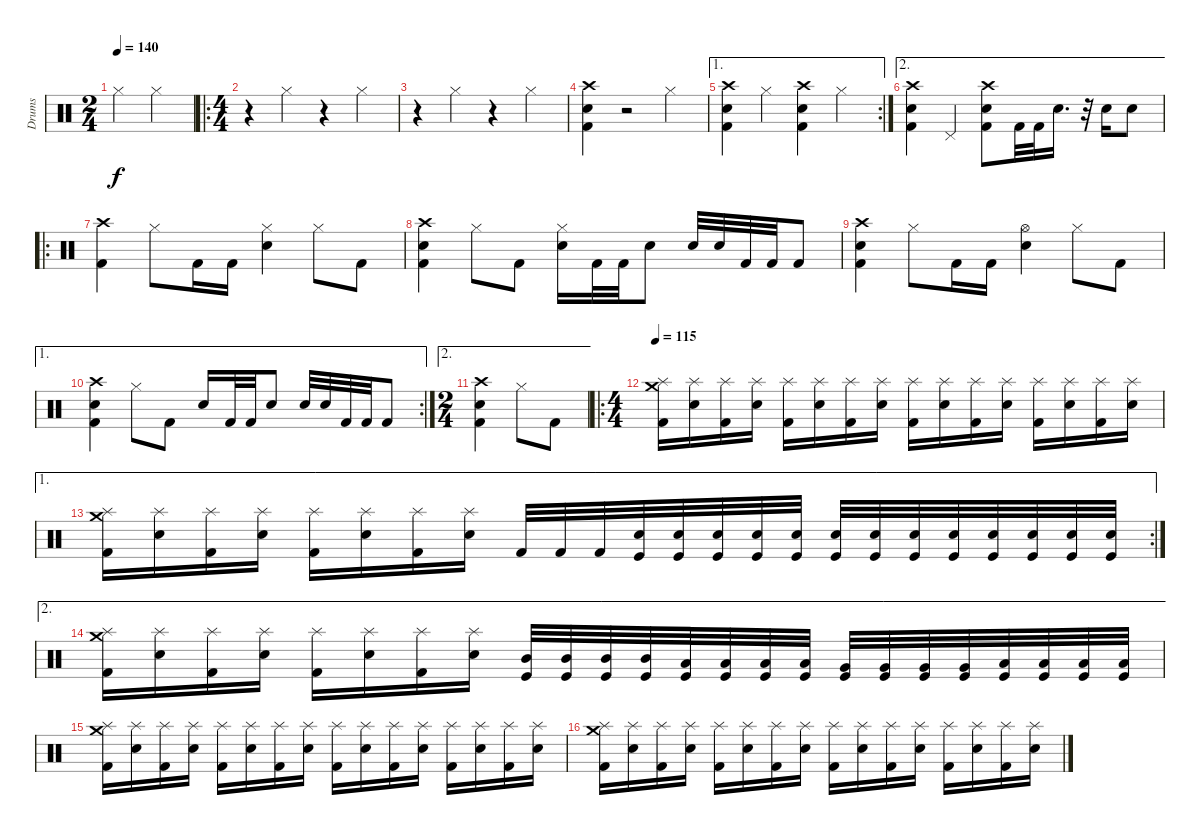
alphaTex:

\track ("Drums" "Drums") {instrument percussion}
\staff {score}
\articulation defaults
\ts (2 4)
\tempo 140
\tempo 100
\tempo 140
\clef neutral
\ks c "Hi-Hat (closed)".4{dy f} "Hi-Hat (closed)".4
|
\ro
\ts (4 4)
r.4 "Hi-Hat (closed)".4 r.4 "Hi-Hat (closed)".4 |
r.4 "Hi-Hat (closed)".4 r.4 "Hi-Hat (closed)".4 |
("Crash high (hit)" "Electric Snare (hit)" "Kick (hit) 2").4 r.2 "Hi-Hat (closed)".4 |
\ae 1
\rc 2
("Crash high (hit)" "Electric Snare (hit)" "Kick (hit) 2").4 "Hi-Hat (closed)".4 ("Crash high (hit)" "Electric Snare (hit)" "Kick (hit) 2").4 "Hi-Hat (closed)".4 |
\ae 2
("Crash high (hit)" "Electric Snare (hit)" "Kick (hit) 2").4 "Pedal Hi-Hat (hit)".4 ("Crash high (hit)" "Electric Snare (hit)" "Kick (hit) 2").8 "Kick (hit) 2".32 "Kick (hit) 2".32 "Electric Snare (hit)".16{d} r.32 "Electric Snare (hit)".16 "Electric Snare (hit)".8 |
\ro
("Crash high (hit)" "Kick (hit) 2").4 "Hi-Hat (closed)".8 "Kick (hit) 2".16 "Kick (hit) 2".16 ("Hi-Hat (closed)" "Electric Snare (hit)").4 "Hi-Hat (closed)".8 "Kick (hit) 2".8 |
("Crash high (hit)" "Electric Snare (hit)" "Kick (hit) 2").4 "Hi-Hat (closed)".8 "Kick (hit) 2".8 ("Hi-Hat (closed)" "Electric Snare (hit)").16 "Kick (hit) 2".32 "Kick (hit) 2".32 "Electric Snare (hit)".8 "Electric Snare (hit)".32 "Electric Snare (hit)".32 "Kick (hit) 2".32 "Kick (hit) 2".32 "Kick (hit) 2".8 |
("Crash high (hit)" "Electric Snare (hit)" "Kick (hit) 2").4 "Hi-Hat (closed)".8 "Kick (hit) 2".16 "Kick (hit) 2".16 ("Hi-Hat (open)" "Electric Snare (hit)").4 "Hi-Hat (closed)".8 "Kick (hit) 2".8 |
\ae 1
\rc 2
("Crash high (hit)" "Electric Snare (hit)" "Kick (hit) 2").4 "Hi-Hat (closed)".8 "Kick (hit) 2".8 "Electric Snare (hit)".16 "Kick (hit) 2".32 "Kick (hit) 2".32 "Electric Snare (hit)".8 "Electric Snare (hit)".32 "Electric Snare (hit)".32 "Kick (hit) 2".32 "Kick (hit) 2".32 "Kick (hit) 2".8 |
\ae 2
\ts (2 4)
("Crash high (hit)" "Electric Snare (hit)" "Kick (hit) 2").4 "Hi-Hat (closed)".8 "Kick (hit) 2".8 |
\ro
\ts (4 4)
\tempo 115
("Splash (hit)" "Crash medium (hit)" "Kick (hit) 2").16 ("Splash (hit)" "Electric Snare (hit)").16 ("Splash (hit)" "Kick (hit) 2").16 ("Splash (hit)" "Electric Snare (hit)").16 ("Splash (hit)" "Kick (hit) 2").16 ("Splash (hit)" "Electric Snare (hit)").16 ("Splash (hit)" "Kick (hit) 2").16 ("Splash (hit)" "Electric Snare (hit)").16 ("Splash (hit)" "Kick (hit) 2").16 ("Splash (hit)" "Electric Snare (hit)").16 ("Splash (hit)" "Kick (hit) 2").16 ("Splash (hit)" "Electric Snare (hit)").16 ("Splash (hit)" "Kick (hit) 2").16 ("Splash (hit)" "Electric Snare (hit)").16 ("Splash (hit)" "Kick (hit) 2").16 ("Splash (hit)" "Electric Snare (hit)").16 |
\ae 1
\rc 2
("Splash (hit)" "Crash medium (hit)" "Kick (hit) 2").16 ("Splash (hit)" "Electric Snare (hit)").16 ("Splash (hit)" "Kick (hit) 2").16 ("Splash (hit)" "Electric Snare (hit)").16 ("Splash (hit)" "Kick (hit) 2").16 ("Splash (hit)" "Electric Snare (hit)").16 ("Splash (hit)" "Kick (hit) 2").16 ("Splash (hit)" "Electric Snare (hit)").16 "Kick (hit) 2".32 "Kick (hit) 2".32 "Kick (hit) 2".32 ("Electric Snare (hit)" "Kick (hit)").32 ("Electric Snare (hit)" "Kick (hit)").32 ("Electric Snare (hit)" "Kick (hit)").32 ("Snare (hit) 2" "Kick (hit)").32 ("Snare (hit) 2" "Kick (hit)").32 ("Electric Snare (hit)" "Kick (hit)").32 ("Electric Snare (hit)" "Kick (hit)").32 ("Electric Snare (hit)" "Kick (hit)").32 ("Electric Snare (hit)" "Kick (hit)").32 ("Electric Snare (hit)" "Kick (hit)").32 ("Electric Snare (hit)" "Kick (hit)").32 ("Electric Snare (hit)" "Kick (hit)").32 ("Electric Snare (hit)" "Kick (hit)").32 |
\ae 2
("Splash (hit)" "Crash medium (hit)" "Kick (hit) 2").16 ("Splash (hit)" "Electric Snare (hit)").16 ("Splash (hit)" "Kick (hit) 2").16 ("Splash (hit)" "Electric Snare (hit)").16 ("Splash (hit)" "Kick (hit) 2").16 ("Splash (hit)" "Electric Snare (hit)").16 ("Splash (hit)" "Kick (hit) 2").16 ("Splash (hit)" "Electric Snare (hit)").16 ("Mid Tom (hit)" "Kick (hit)").32 ("Mid Tom (hit)" "Kick (hit)").32 ("Mid Tom (hit)" "Kick (hit)").32 ("Mid Tom (hit)" "Kick (hit)").32 ("Low Tom (hit)" "Kick (hit)").32 ("Low Tom (hit)" "Kick (hit)").32 ("Low Tom (hit)" "Kick (hit)").32 ("Low Tom (hit)" "Kick (hit)").32 ("Very Low Tom (hit)" "Kick (hit)").32 ("Very Low Tom (hit)" "Kick (hit)").32 ("Very Low Tom (hit)" "Kick (hit)").32 ("Very Low Tom (hit)" "Kick (hit)").32 ("Low Floor Tom (hit)" "Kick (hit)").32 ("Low Floor Tom (hit)" "Kick (hit)").32 ("Low Floor Tom (hit)" "Kick (hit)").32 ("Low Floor Tom (hit)" "Kick (hit)").32 |
("Splash (hit)" "Crash medium (hit)" "Kick (hit) 2").16 ("Splash (hit)" "Electric Snare (hit)").16 ("Splash (hit)" "Kick (hit) 2").16 ("Splash (hit)" "Electric Snare (hit)").16 ("Splash (hit)" "Kick (hit) 2").16 ("Splash (hit)" "Electric Snare (hit)").16 ("Splash (hit)" "Kick (hit) 2").16 ("Splash (hit)" "Electric Snare (hit)").16 ("Splash (hit)" "Kick (hit) 2").16 ("Splash (hit)" "Electric Snare (hit)").16 ("Splash (hit)" "Kick (hit) 2").16 ("Splash (hit)" "Electric Snare (hit)").16 ("Splash (hit)" "Kick (hit) 2").16 ("Splash (hit)" "Electric Snare (hit)").16 ("Splash (hit)" "Kick (hit) 2").16 ("Splash (hit)" "Electric Snare (hit)").16 |
("Splash (hit)" "Crash medium (hit)" "Kick (hit) 2").16 ("Splash (hit)" "Electric Snare (hit)").16 ("Splash (hit)" "Kick (hit) 2").16 ("Splash (hit)" "Electric Snare (hit)").16 ("Splash (hit)" "Kick (hit) 2").16 ("Splash (hit)" "Electric Snare (hit)").16 ("Splash (hit)" "Kick (hit) 2").16 ("Splash (hit)" "Electric Snare (hit)").16 ("Splash (hit)" "Kick (hit) 2").16 ("Splash (hit)" "Electric Snare (hit)").16 ("Splash (hit)" "Kick (hit) 2").16 ("Splash (hit)" "Electric Snare (hit)").16 ("Splash (hit)" "Kick (hit) 2").16 ("Splash (hit)" "Electric Snare (hit)").16 ("Splash (hit)" "Kick (hit) 2").16 ("Splash (hit)" "Electric Snare (hit)").16
